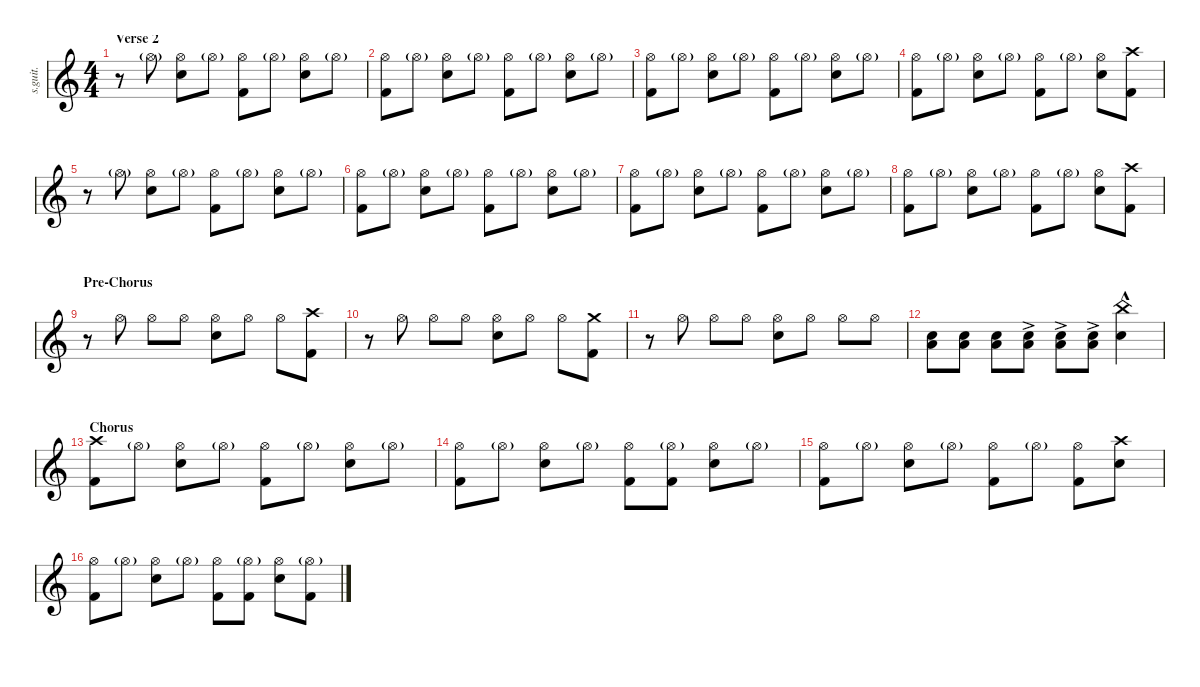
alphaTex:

\defaultSystemsLayout 4
\hideDynamics
\bracketExtendMode nobrackets
\track ("Lars Ulrich" "s.guit.") {instrument percussion}
\staff {score}
\articulation defaults
\ts (4 4)
\section ("" "Verse 2")
\tempo (124 hide)
\clef g2
\ks c
r.8{dy f} "Hi-Hat (open)"{g}.8{lyrics (0 "") lyrics (1 "") lyrics (2 "") lyrics (3 "") lyrics (4 "") dy p} ("Hi-Hat (open)" "Snare (hit) 2").8{lyrics (0 "") lyrics (1 "") lyrics (2 "") lyrics (3 "") lyrics (4 "") dy f} "Hi-Hat (open)"{g}.8{lyrics (0 "") lyrics (1 "") lyrics (2 "") lyrics (3 "") lyrics (4 "") dy p} ("Hi-Hat (open)" "Kick (hit) 2").8{lyrics (0 "") lyrics (1 "") lyrics (2 "") lyrics (3 "") lyrics (4 "") dy f} "Hi-Hat (open)"{g}.8{lyrics (0 "") lyrics (1 "") lyrics (2 "") lyrics (3 "") lyrics (4 "") dy p} ("Hi-Hat (open)" "Snare (hit) 2").8{lyrics (0 "") lyrics (1 "") lyrics (2 "") lyrics (3 "") lyrics (4 "") dy f} "Hi-Hat (open)"{g}.8{lyrics (0 "") lyrics (1 "") lyrics (2 "") lyrics (3 "") lyrics (4 "") dy p} |
("Hi-Hat (open)" "Kick (hit) 2").8{lyrics (0 "") lyrics (1 "") lyrics (2 "") lyrics (3 "") lyrics (4 "") dy f} "Hi-Hat (open)"{g}.8{lyrics (0 "") lyrics (1 "") lyrics (2 "") lyrics (3 "") lyrics (4 "") dy p} ("Hi-Hat (open)" "Snare (hit) 2").8{lyrics (0 "") lyrics (1 "") lyrics (2 "") lyrics (3 "") lyrics (4 "") dy f} "Hi-Hat (open)"{g}.8{lyrics (0 "") lyrics (1 "") lyrics (2 "") lyrics (3 "") lyrics (4 "") dy p} ("Hi-Hat (open)" "Kick (hit) 2").8{lyrics (0 "") lyrics (1 "") lyrics (2 "") lyrics (3 "") lyrics (4 "") dy f} "Hi-Hat (open)"{g}.8{lyrics (0 "") lyrics (1 "") lyrics (2 "") lyrics (3 "") lyrics (4 "") dy p} ("Hi-Hat (open)" "Snare (hit) 2").8{lyrics (0 "") lyrics (1 "") lyrics (2 "") lyrics (3 "") lyrics (4 "") dy f} "Hi-Hat (open)"{g}.8{lyrics (0 "") lyrics (1 "") lyrics (2 "") lyrics (3 "") lyrics (4 "") dy p} |
("Hi-Hat (open)" "Kick (hit) 2").8{lyrics (0 "") lyrics (1 "") lyrics (2 "") lyrics (3 "") lyrics (4 "") dy f} "Hi-Hat (open)"{g}.8{lyrics (0 "") lyrics (1 "") lyrics (2 "") lyrics (3 "") lyrics (4 "") dy p} ("Hi-Hat (open)" "Snare (hit) 2").8{lyrics (0 "") lyrics (1 "") lyrics (2 "") lyrics (3 "") lyrics (4 "") dy f} "Hi-Hat (open)"{g}.8{lyrics (0 "") lyrics (1 "") lyrics (2 "") lyrics (3 "") lyrics (4 "") dy p} ("Hi-Hat (open)" "Kick (hit) 2").8{lyrics (0 "") lyrics (1 "") lyrics (2 "") lyrics (3 "") lyrics (4 "") dy f} "Hi-Hat (open)"{g}.8{lyrics (0 "") lyrics (1 "") lyrics (2 "") lyrics (3 "") lyrics (4 "") dy p} ("Hi-Hat (open)" "Snare (hit) 2").8{lyrics (0 "") lyrics (1 "") lyrics (2 "") lyrics (3 "") lyrics (4 "") dy f} "Hi-Hat (open)"{g}.8{lyrics (0 "") lyrics (1 "") lyrics (2 "") lyrics (3 "") lyrics (4 "") dy p} |
("Hi-Hat (open)" "Kick (hit) 2").8{lyrics (0 "") lyrics (1 "") lyrics (2 "") lyrics (3 "") lyrics (4 "") dy f} "Hi-Hat (open)"{g}.8{lyrics (0 "") lyrics (1 "") lyrics (2 "") lyrics (3 "") lyrics (4 "") dy p} ("Hi-Hat (open)" "Snare (hit) 2").8{lyrics (0 "") lyrics (1 "") lyrics (2 "") lyrics (3 "") lyrics (4 "") dy f} "Hi-Hat (open)"{g}.8{lyrics (0 "") lyrics (1 "") lyrics (2 "") lyrics (3 "") lyrics (4 "") dy p} ("Hi-Hat (open)" "Kick (hit) 2").8{lyrics (0 "") lyrics (1 "") lyrics (2 "") lyrics (3 "") lyrics (4 "") dy f} "Hi-Hat (open)"{g}.8{lyrics (0 "") lyrics (1 "") lyrics (2 "") lyrics (3 "") lyrics (4 "") dy p} ("Hi-Hat (open)" "Snare (hit) 2").8{lyrics (0 "") lyrics (1 "") lyrics (2 "") lyrics (3 "") lyrics (4 "") dy f} ("Crash high (hit)" "Kick (hit) 2").8{lyrics (0 "") lyrics (1 "") lyrics (2 "") lyrics (3 "") lyrics (4 "")} |
r.8 "Hi-Hat (open)"{g}.8{lyrics (0 "") lyrics (1 "") lyrics (2 "") lyrics (3 "") lyrics (4 "") dy mp} ("Hi-Hat (open)" "Snare (hit) 2").8{lyrics (0 "") lyrics (1 "") lyrics (2 "") lyrics (3 "") lyrics (4 "") dy f} "Hi-Hat (open)"{g}.8{lyrics (0 "") lyrics (1 "") lyrics (2 "") lyrics (3 "") lyrics (4 "") dy p} ("Hi-Hat (open)" "Kick (hit) 2").8{lyrics (0 "") lyrics (1 "") lyrics (2 "") lyrics (3 "") lyrics (4 "") dy f} "Hi-Hat (open)"{g}.8{lyrics (0 "") lyrics (1 "") lyrics (2 "") lyrics (3 "") lyrics (4 "") dy p} ("Hi-Hat (open)" "Snare (hit) 2").8{lyrics (0 "") lyrics (1 "") lyrics (2 "") lyrics (3 "") lyrics (4 "") dy f} "Hi-Hat (open)"{g}.8{lyrics (0 "") lyrics (1 "") lyrics (2 "") lyrics (3 "") lyrics (4 "") dy p} |
("Hi-Hat (open)" "Kick (hit) 2").8{lyrics (0 "") lyrics (1 "") lyrics (2 "") lyrics (3 "") lyrics (4 "") dy f} "Hi-Hat (open)"{g}.8{lyrics (0 "") lyrics (1 "") lyrics (2 "") lyrics (3 "") lyrics (4 "") dy p} ("Hi-Hat (open)" "Snare (hit) 2").8{lyrics (0 "") lyrics (1 "") lyrics (2 "") lyrics (3 "") lyrics (4 "") dy f} "Hi-Hat (open)"{g}.8{lyrics (0 "") lyrics (1 "") lyrics (2 "") lyrics (3 "") lyrics (4 "") dy p} ("Hi-Hat (open)" "Kick (hit) 2").8{lyrics (0 "") lyrics (1 "") lyrics (2 "") lyrics (3 "") lyrics (4 "") dy f} "Hi-Hat (open)"{g}.8{lyrics (0 "") lyrics (1 "") lyrics (2 "") lyrics (3 "") lyrics (4 "") dy p} ("Hi-Hat (open)" "Snare (hit) 2").8{lyrics (0 "") lyrics (1 "") lyrics (2 "") lyrics (3 "") lyrics (4 "") dy f} "Hi-Hat (open)"{g}.8{lyrics (0 "") lyrics (1 "") lyrics (2 "") lyrics (3 "") lyrics (4 "") dy p} |
("Hi-Hat (open)" "Kick (hit) 2").8{lyrics (0 "") lyrics (1 "") lyrics (2 "") lyrics (3 "") lyrics (4 "") dy f} "Hi-Hat (open)"{g}.8{lyrics (0 "") lyrics (1 "") lyrics (2 "") lyrics (3 "") lyrics (4 "") dy p} ("Hi-Hat (open)" "Snare (hit) 2").8{lyrics (0 "") lyrics (1 "") lyrics (2 "") lyrics (3 "") lyrics (4 "") dy f} "Hi-Hat (open)"{g}.8{lyrics (0 "") lyrics (1 "") lyrics (2 "") lyrics (3 "") lyrics (4 "") dy p} ("Hi-Hat (open)" "Kick (hit) 2").8{lyrics (0 "") lyrics (1 "") lyrics (2 "") lyrics (3 "") lyrics (4 "") dy f} "Hi-Hat (open)"{g}.8{lyrics (0 "") lyrics (1 "") lyrics (2 "") lyrics (3 "") lyrics (4 "") dy p} ("Hi-Hat (open)" "Snare (hit) 2").8{lyrics (0 "") lyrics (1 "") lyrics (2 "") lyrics (3 "") lyrics (4 "") dy f} "Hi-Hat (open)"{g}.8{lyrics (0 "") lyrics (1 "") lyrics (2 "") lyrics (3 "") lyrics (4 "") dy p} |
("Hi-Hat (open)" "Kick (hit) 2").8{lyrics (0 "") lyrics (1 "") lyrics (2 "") lyrics (3 "") lyrics (4 "") dy f} "Hi-Hat (open)"{g}.8{lyrics (0 "") lyrics (1 "") lyrics (2 "") lyrics (3 "") lyrics (4 "") dy p} ("Hi-Hat (open)" "Snare (hit) 2").8{lyrics (0 "") lyrics (1 "") lyrics (2 "") lyrics (3 "") lyrics (4 "") dy f} "Hi-Hat (open)"{g}.8{lyrics (0 "") lyrics (1 "") lyrics (2 "") lyrics (3 "") lyrics (4 "") dy p} ("Hi-Hat (open)" "Kick (hit) 2").8{lyrics (0 "") lyrics (1 "") lyrics (2 "") lyrics (3 "") lyrics (4 "") dy f} "Hi-Hat (open)"{g}.8{lyrics (0 "") lyrics (1 "") lyrics (2 "") lyrics (3 "") lyrics (4 "") dy p} ("Hi-Hat (open)" "Snare (hit) 2").8{lyrics (0 "") lyrics (1 "") lyrics (2 "") lyrics (3 "") lyrics (4 "") dy f} ("Crash high (hit)" "Kick (hit) 2").8{lyrics (0 "") lyrics (1 "") lyrics (2 "") lyrics (3 "") lyrics (4 "")} |
\section ("" "Pre-Chorus")
r.8 "Hi-Hat (open)".8{lyrics (0 "") lyrics (1 "") lyrics (2 "") lyrics (3 "") lyrics (4 "")} "Hi-Hat (open)".8{lyrics (0 "") lyrics (1 "") lyrics (2 "") lyrics (3 "") lyrics (4 "") dy ff} "Hi-Hat (open)".8{lyrics (0 "") lyrics (1 "") lyrics (2 "") lyrics (3 "") lyrics (4 "")} ("Hi-Hat (open)" "Snare (hit) 2").8{lyrics (0 "") lyrics (1 "") lyrics (2 "") lyrics (3 "") lyrics (4 "")} "Hi-Hat (open)".8{lyrics (0 "") lyrics (1 "") lyrics (2 "") lyrics (3 "") lyrics (4 "")} "Hi-Hat (open)".8{lyrics (0 "") lyrics (1 "") lyrics (2 "") lyrics (3 "") lyrics (4 "")} ("Crash high (hit)" "Kick (hit) 2").8{lyrics (0 "") lyrics (1 "") lyrics (2 "") lyrics (3 "") lyrics (4 "")} |
r.8 "Hi-Hat (open)".8{lyrics (0 "") lyrics (1 "") lyrics (2 "") lyrics (3 "") lyrics (4 "")} "Hi-Hat (open)".8{lyrics (0 "") lyrics (1 "") lyrics (2 "") lyrics (3 "") lyrics (4 "")} "Hi-Hat (open)".8{lyrics (0 "") lyrics (1 "") lyrics (2 "") lyrics (3 "") lyrics (4 "")} ("Hi-Hat (open)" "Snare (hit) 2").8{lyrics (0 "") lyrics (1 "") lyrics (2 "") lyrics (3 "") lyrics (4 "")} "Hi-Hat (open)".8{lyrics (0 "") lyrics (1 "") lyrics (2 "") lyrics (3 "") lyrics (4 "")} "Hi-Hat (open)".8{lyrics (0 "") lyrics (1 "") lyrics (2 "") lyrics (3 "") lyrics (4 "")} ("Kick (hit) 2" "Crash medium (hit)").8{lyrics (0 "") lyrics (1 "") lyrics (2 "") lyrics (3 "") lyrics (4 "")} |
r.8 "Hi-Hat (open)".8{lyrics (0 "") lyrics (1 "") lyrics (2 "") lyrics (3 "") lyrics (4 "")} "Hi-Hat (open)".8{lyrics (0 "") lyrics (1 "") lyrics (2 "") lyrics (3 "") lyrics (4 "")} "Hi-Hat (open)".8{lyrics (0 "") lyrics (1 "") lyrics (2 "") lyrics (3 "") lyrics (4 "")} ("Hi-Hat (open)" "Snare (hit) 2").8{lyrics (0 "") lyrics (1 "") lyrics (2 "") lyrics (3 "") lyrics (4 "")} "Hi-Hat (open)".8{lyrics (0 "") lyrics (1 "") lyrics (2 "") lyrics (3 "") lyrics (4 "")} "Hi-Hat (open)".8{lyrics (0 "") lyrics (1 "") lyrics (2 "") lyrics (3 "") lyrics (4 "")} "Hi-Hat (open)".8{lyrics (0 "") lyrics (1 "") lyrics (2 "") lyrics (3 "") lyrics (4 "")} |
("Snare (hit) 2" "Low Floor Tom (hit)").8{lyrics (0 "") lyrics (1 "") lyrics (2 "") lyrics (3 "") lyrics (4 "")} ("Snare (hit) 2" "Low Floor Tom (hit)").8{lyrics (0 "") lyrics (1 "") lyrics (2 "") lyrics (3 "") lyrics (4 "")} ("Snare (hit) 2" "Low Floor Tom (hit)").8{lyrics (0 "") lyrics (1 "") lyrics (2 "") lyrics (3 "") lyrics (4 "")} ("Snare (hit) 2"{ac} "Low Floor Tom (hit)"{ac}).8{lyrics (0 "") lyrics (1 "") lyrics (2 "") lyrics (3 "") lyrics (4 "")} ("Snare (hit) 2"{ac} "Low Floor Tom (hit)"{ac}).8{lyrics (0 "") lyrics (1 "") lyrics (2 "") lyrics (3 "") lyrics (4 "")} ("Snare (hit) 2"{ac} "Low Floor Tom (hit)"{ac}).8{lyrics (0 "") lyrics (1 "") lyrics (2 "") lyrics (3 "") lyrics (4 "")} ("Snare (hit) 2" "China (hit)"{hac}).4{lyrics (0 "") lyrics (1 "") lyrics (2 "") lyrics (3 "") lyrics (4 "")} |
\section ("" "Chorus")
("Crash high (hit)" "Kick (hit) 2").8{lyrics (0 "") lyrics (1 "") lyrics (2 "") lyrics (3 "") lyrics (4 "") dy f} "Hi-Hat (open)"{g}.8{lyrics (0 "") lyrics (1 "") lyrics (2 "") lyrics (3 "") lyrics (4 "") dy p} ("Hi-Hat (open)" "Snare (hit) 2").8{lyrics (0 "") lyrics (1 "") lyrics (2 "") lyrics (3 "") lyrics (4 "") dy f} "Hi-Hat (open)"{g}.8{lyrics (0 "") lyrics (1 "") lyrics (2 "") lyrics (3 "") lyrics (4 "") dy p} ("Hi-Hat (open)" "Kick (hit) 2").8{lyrics (0 "") lyrics (1 "") lyrics (2 "") lyrics (3 "") lyrics (4 "") dy f} "Hi-Hat (open)"{g}.8{lyrics (0 "") lyrics (1 "") lyrics (2 "") lyrics (3 "") lyrics (4 "") dy p} ("Hi-Hat (open)" "Snare (hit) 2").8{lyrics (0 "") lyrics (1 "") lyrics (2 "") lyrics (3 "") lyrics (4 "") dy f} "Hi-Hat (open)"{g}.8{lyrics (0 "") lyrics (1 "") lyrics (2 "") lyrics (3 "") lyrics (4 "") dy p} |
("Hi-Hat (open)" "Kick (hit) 2").8{lyrics (0 "") lyrics (1 "") lyrics (2 "") lyrics (3 "") lyrics (4 "") dy f} "Hi-Hat (open)"{g}.8{lyrics (0 "") lyrics (1 "") lyrics (2 "") lyrics (3 "") lyrics (4 "") dy p} ("Hi-Hat (open)" "Snare (hit) 2").8{lyrics (0 "") lyrics (1 "") lyrics (2 "") lyrics (3 "") lyrics (4 "") dy f} "Hi-Hat (open)"{g}.8{lyrics (0 "") lyrics (1 "") lyrics (2 "") lyrics (3 "") lyrics (4 "") dy p} ("Hi-Hat (open)" "Kick (hit) 2").8{lyrics (0 "") lyrics (1 "") lyrics (2 "") lyrics (3 "") lyrics (4 "") dy f} ("Hi-Hat (open)"{g} "Kick (hit) 2").8{lyrics (0 "") lyrics (1 "") lyrics (2 "") lyrics (3 "") lyrics (4 "")} ("Hi-Hat (open)" "Snare (hit) 2").8{lyrics (0 "") lyrics (1 "") lyrics (2 "") lyrics (3 "") lyrics (4 "")} "Hi-Hat (open)"{g}.8{lyrics (0 "") lyrics (1 "") lyrics (2 "") lyrics (3 "") lyrics (4 "") dy p} |
("Hi-Hat (open)" "Kick (hit) 2").8{lyrics (0 "") lyrics (1 "") lyrics (2 "") lyrics (3 "") lyrics (4 "") dy f} "Hi-Hat (open)"{g}.8{lyrics (0 "") lyrics (1 "") lyrics (2 "") lyrics (3 "") lyrics (4 "") dy p} ("Hi-Hat (open)" "Snare (hit) 2").8{lyrics (0 "") lyrics (1 "") lyrics (2 "") lyrics (3 "") lyrics (4 "") dy f} "Hi-Hat (open)"{g}.8{lyrics (0 "") lyrics (1 "") lyrics (2 "") lyrics (3 "") lyrics (4 "") dy p} ("Hi-Hat (open)" "Kick (hit) 2").8{lyrics (0 "") lyrics (1 "") lyrics (2 "") lyrics (3 "") lyrics (4 "") dy f} "Hi-Hat (open)"{g}.8{lyrics (0 "") lyrics (1 "") lyrics (2 "") lyrics (3 "") lyrics (4 "") dy p} ("Hi-Hat (open)" "Kick (hit) 2").8{lyrics (0 "") lyrics (1 "") lyrics (2 "") lyrics (3 "") lyrics (4 "") dy f} ("Crash high (hit)" "Snare (hit) 2").8{lyrics (0 "") lyrics (1 "") lyrics (2 "") lyrics (3 "") lyrics (4 "")} |
("Hi-Hat (open)" "Kick (hit) 2").8{lyrics (0 "") lyrics (1 "") lyrics (2 "") lyrics (3 "") lyrics (4 "")} "Hi-Hat (open)"{g}.8{lyrics (0 "") lyrics (1 "") lyrics (2 "") lyrics (3 "") lyrics (4 "") dy p} ("Hi-Hat (open)" "Snare (hit) 2").8{lyrics (0 "") lyrics (1 "") lyrics (2 "") lyrics (3 "") lyrics (4 "") dy f} "Hi-Hat (open)"{g}.8{lyrics (0 "") lyrics (1 "") lyrics (2 "") lyrics (3 "") lyrics (4 "") dy p} ("Hi-Hat (open)" "Kick (hit) 2").8{lyrics (0 "") lyrics (1 "") lyrics (2 "") lyrics (3 "") lyrics (4 "") dy f} ("Hi-Hat (open)"{g} "Kick (hit) 2").8{lyrics (0 "") lyrics (1 "") lyrics (2 "") lyrics (3 "") lyrics (4 "")} ("Hi-Hat (open)" "Snare (hit) 2").8{lyrics (0 "") lyrics (1 "") lyrics (2 "") lyrics (3 "") lyrics (4 "")} ("Hi-Hat (open)"{g} "Kick (hit) 2").8{lyrics (0 "") lyrics (1 "") lyrics (2 "") lyrics (3 "") lyrics (4 "")}
